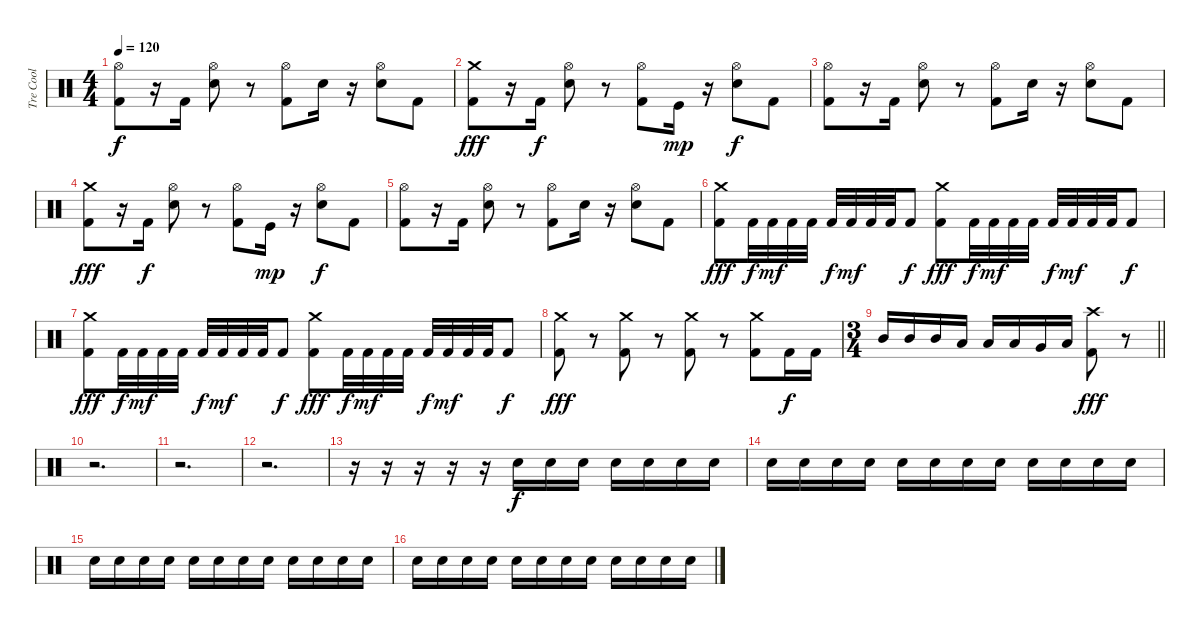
\track ("Tre Cool" "Tre Cool") {instrument percussion}
\staff {score}
\articulation defaults
\ts (4 4)
\tempo 120
\clef neutral
\ks c
("Kick (hit) 2" "Hi-Hat (open)").8{dy f} r.16 "Kick (hit) 2".16 ("Electric Snare (hit)" "Hi-Hat (open)").8 r.8 ("Kick (hit) 2" "Hi-Hat (open)").8 "Electric Snare (hit)".16 r.16 ("Electric Snare (hit)" "Hi-Hat (open)").8 "Kick (hit) 2".8 |
("Kick (hit) 2" "Crash medium (hit)").8{dy fff} r.16 "Kick (hit) 2".16{dy f} ("Electric Snare (hit)" "Hi-Hat (open)").8 r.8 ("Kick (hit) 2" "Hi-Hat (open)").8 "Kick (hit)".16{dy mp} r.16 ("Electric Snare (hit)" "Hi-Hat (open)").8{dy f} "Kick (hit) 2".8 |
("Kick (hit) 2" "Hi-Hat (open)").8 r.16 "Kick (hit) 2".16 ("Electric Snare (hit)" "Hi-Hat (open)").8 r.8 ("Kick (hit) 2" "Hi-Hat (open)").8 "Electric Snare (hit)".16 r.16 ("Electric Snare (hit)" "Hi-Hat (open)").8 "Kick (hit) 2".8 |
("Kick (hit) 2" "Crash medium (hit)").8{dy fff} r.16 "Kick (hit) 2".16{dy f} ("Electric Snare (hit)" "Hi-Hat (open)").8 r.8 ("Kick (hit) 2" "Hi-Hat (open)").8 "Kick (hit)".16{dy mp} r.16 ("Electric Snare (hit)" "Hi-Hat (open)").8{dy f} "Kick (hit) 2".8 |
("Kick (hit) 2" "Hi-Hat (open)").8 r.16 "Kick (hit) 2".16 ("Electric Snare (hit)" "Hi-Hat (open)").8 r.8 ("Kick (hit) 2" "Hi-Hat (open)").8 "Electric Snare (hit)".16 r.16 ("Electric Snare (hit)" "Hi-Hat (open)").8 "Kick (hit) 2".8 |
("Kick (hit) 2" "Crash medium (hit)").8{dy fff} "Kick (hit) 2".32{dy f} "Kick (hit) 2".32{dy mf} "Kick (hit) 2".32 "Kick (hit) 2".32 "Kick (hit) 2".32{dy f} "Kick (hit) 2".32{dy mf} "Kick (hit) 2".32 "Kick (hit) 2".32 "Kick (hit) 2".8{dy f} ("Kick (hit) 2" "Crash medium (hit)").8{dy fff} "Kick (hit) 2".32{dy f} "Kick (hit) 2".32{dy mf} "Kick (hit) 2".32 "Kick (hit) 2".32 "Kick (hit) 2".32{dy f} "Kick (hit) 2".32{dy mf} "Kick (hit) 2".32 "Kick (hit) 2".32 "Kick (hit) 2".8{dy f} |
("Kick (hit) 2" "Crash medium (hit)").8{dy fff} "Kick (hit) 2".32{dy f} "Kick (hit) 2".32{dy mf} "Kick (hit) 2".32 "Kick (hit) 2".32 "Kick (hit) 2".32{dy f} "Kick (hit) 2".32{dy mf} "Kick (hit) 2".32 "Kick (hit) 2".32 "Kick (hit) 2".8{dy f} ("Kick (hit) 2" "Crash medium (hit)").8{dy fff} "Kick (hit) 2".32{dy f} "Kick (hit) 2".32{dy mf} "Kick (hit) 2".32 "Kick (hit) 2".32 "Kick (hit) 2".32{dy f} "Kick (hit) 2".32{dy mf} "Kick (hit) 2".32 "Kick (hit) 2".32 "Kick (hit) 2".8{dy f} |
("Kick (hit) 2" "Crash medium (hit)").8{dy fff} r.8 ("Kick (hit) 2" "Crash medium (hit)").8 r.8 ("Kick (hit) 2" "Crash medium (hit)").8 r.8 ("Kick (hit) 2" "Crash medium (hit)").8 "Kick (hit) 2".16{dy f} "Kick (hit) 2".16 |
\ts (3 4)
\barLineRight lightlight "Mid Tom (hit)".16 "Mid Tom (hit)".16 "Mid Tom (hit)".16 "Low Tom (hit)".16 "Low Tom (hit)".16 "Low Tom (hit)".16 "Very Low Tom (hit)".16 "Low Floor Tom (hit)".16
("Kick (hit) 2" "Crash high (hit)").8{dy fff} r.8 |
r.2{d} |
r.2{d} |
r.2{d} |
r.16{volume 7} r.16 r.16 r.16 r.16 "Snare (hit) 2".16{dy f} "Snare (hit) 2".16 "Snare (hit) 2".16 "Snare (hit) 2".16 "Snare (hit) 2".16 "Snare (hit) 2".16 "Snare (hit) 2".16 |
"Snare (hit) 2".16 "Snare (hit) 2".16 "Snare (hit) 2".16 "Snare (hit) 2".16 "Snare (hit) 2".16 "Snare (hit) 2".16 "Snare (hit) 2".16 "Snare (hit) 2".16 "Snare (hit) 2".16 "Snare (hit) 2".16 "Snare (hit) 2".16 "Snare (hit) 2".16 |
"Snare (hit) 2".16 "Snare (hit) 2".16 "Snare (hit) 2".16 "Snare (hit) 2".16 "Snare (hit) 2".16 "Snare (hit) 2".16 "Snare (hit) 2".16 "Snare (hit) 2".16 "Snare (hit) 2".16 "Snare (hit) 2".16 "Snare (hit) 2".16 "Snare (hit) 2".16 |
"Snare (hit) 2".16 "Snare (hit) 2".16 "Snare (hit) 2".16 "Snare (hit) 2".16 "Snare (hit) 2".16 "Snare (hit) 2".16 "Snare (hit) 2".16 "Snare (hit) 2".16 "Snare (hit) 2".16 "Snare (hit) 2".16 "Snare (hit) 2".16 "Snare (hit) 2".16
